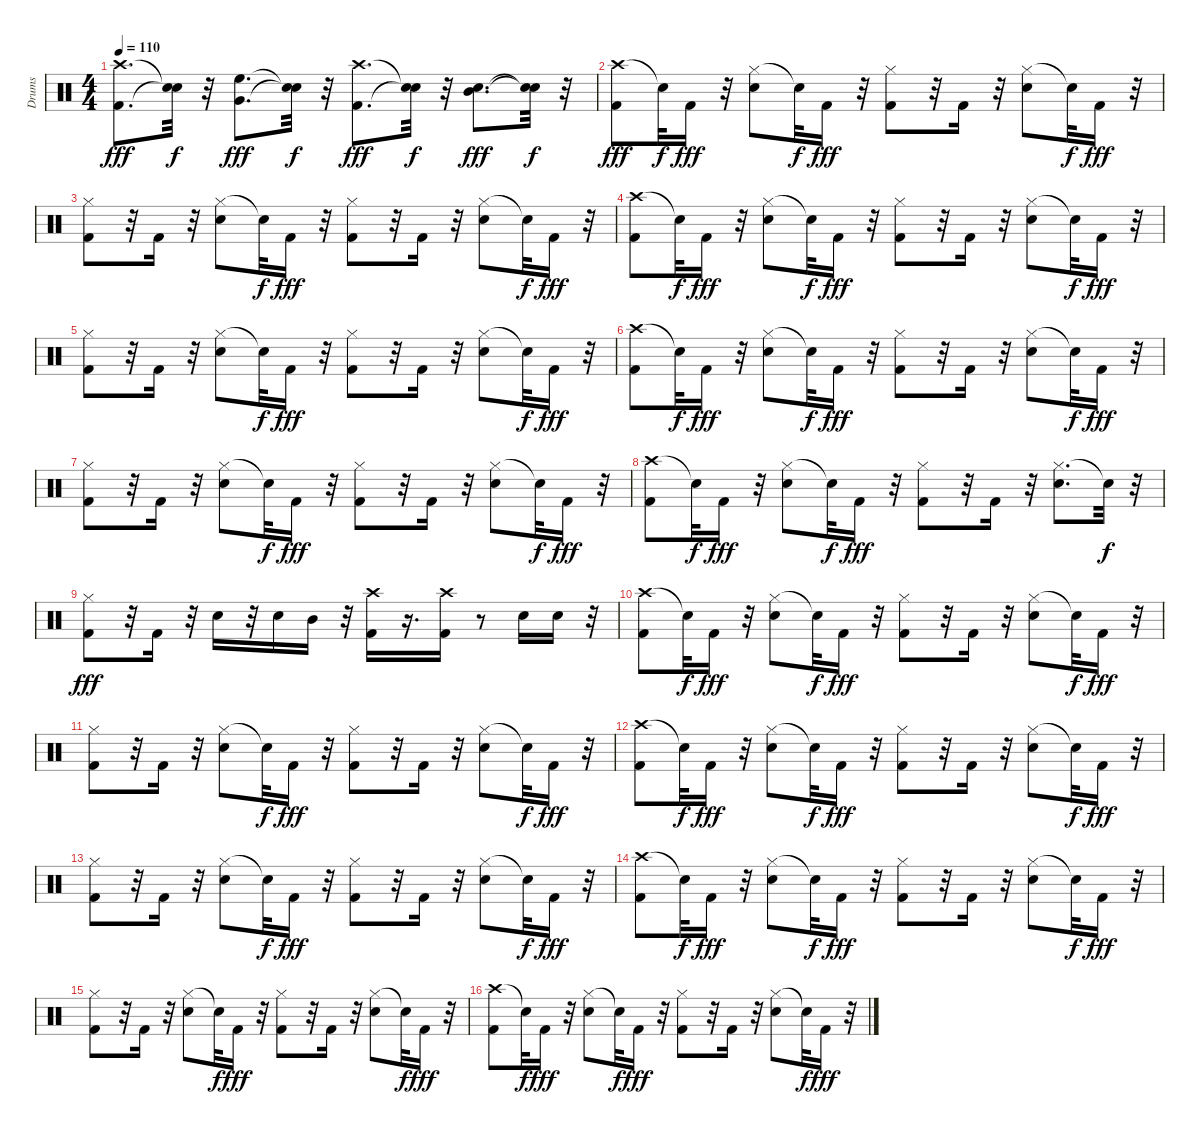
\track ("Drums" "Drums") {instrument percussion}
\staff {score}
\articulation defaults
\ts (4 4)
\tempo 110
\clef neutral
\ks c
("Kick (hit) 2" "Crash high (hit)").8{d dy fff} ("Snare (hit)"{t} "Snare (hit)"{t}).32{dy f} r.32 ("Very Low Tom (hit)" "High Floor Tom (hit)").8{d dy fff} ("Snare (hit)"{t} "Snare (hit)"{t}).32{dy f} r.32 ("Kick (hit) 2" "Crash high (hit)").8{d dy fff} ("Snare (hit)"{t} "Snare (hit)"{t}).32{dy f} r.32 ("Snare (hit) 2" "Mid Tom (hit)").8{d dy fff} ("Snare (hit)"{t} "Snare (hit)"{t}).32{dy f} r.32 |
("Crash high (hit)" "Kick (hit) 2").8{dy fff} "Snare (hit)"{t}.32{dy f} "Kick (hit) 2".16{dy fff} r.32 ("Hi-Hat (closed)" "Snare (hit) 2").8 "Snare (hit)"{t}.32{dy f} "Kick (hit) 2".16{dy fff} r.32 ("Kick (hit) 2" "Hi-Hat (closed)").8 r.32 "Kick (hit) 2".16 r.32 ("Hi-Hat (closed)" "Snare (hit) 2").8 "Snare (hit)"{t}.32{dy f} "Kick (hit) 2".16{dy fff} r.32 |
("Kick (hit) 2" "Hi-Hat (closed)").8 r.32 "Kick (hit) 2".16 r.32 ("Hi-Hat (closed)" "Snare (hit) 2").8 "Snare (hit)"{t}.32{dy f} "Kick (hit) 2".16{dy fff} r.32 ("Kick (hit) 2" "Hi-Hat (closed)").8 r.32 "Kick (hit) 2".16 r.32 ("Hi-Hat (closed)" "Snare (hit) 2").8 "Snare (hit)"{t}.32{dy f} "Kick (hit) 2".16{dy fff} r.32 |
("Crash high (hit)" "Kick (hit) 2").8 "Snare (hit)"{t}.32{dy f} "Kick (hit) 2".16{dy fff} r.32 ("Hi-Hat (closed)" "Snare (hit) 2").8 "Snare (hit)"{t}.32{dy f} "Kick (hit) 2".16{dy fff} r.32 ("Kick (hit) 2" "Hi-Hat (closed)").8 r.32 "Kick (hit) 2".16 r.32 ("Hi-Hat (closed)" "Snare (hit) 2").8 "Snare (hit)"{t}.32{dy f} "Kick (hit) 2".16{dy fff} r.32 |
("Kick (hit) 2" "Hi-Hat (closed)").8 r.32 "Kick (hit) 2".16 r.32 ("Hi-Hat (closed)" "Snare (hit) 2").8 "Snare (hit)"{t}.32{dy f} "Kick (hit) 2".16{dy fff} r.32 ("Kick (hit) 2" "Hi-Hat (closed)").8 r.32 "Kick (hit) 2".16 r.32 ("Hi-Hat (closed)" "Snare (hit) 2").8 "Snare (hit)"{t}.32{dy f} "Kick (hit) 2".16{dy fff} r.32 |
("Crash high (hit)" "Kick (hit) 2").8 "Snare (hit)"{t}.32{dy f} "Kick (hit) 2".16{dy fff} r.32 ("Hi-Hat (closed)" "Snare (hit) 2").8 "Snare (hit)"{t}.32{dy f} "Kick (hit) 2".16{dy fff} r.32 ("Kick (hit) 2" "Hi-Hat (closed)").8 r.32 "Kick (hit) 2".16 r.32 ("Hi-Hat (closed)" "Snare (hit) 2").8 "Snare (hit)"{t}.32{dy f} "Kick (hit) 2".16{dy fff} r.32 |
("Kick (hit) 2" "Hi-Hat (closed)").8 r.32 "Kick (hit) 2".16 r.32 ("Hi-Hat (closed)" "Snare (hit) 2").8 "Snare (hit)"{t}.32{dy f} "Kick (hit) 2".16{dy fff} r.32 ("Kick (hit) 2" "Hi-Hat (closed)").8 r.32 "Kick (hit) 2".16 r.32 ("Hi-Hat (closed)" "Snare (hit) 2").8 "Snare (hit)"{t}.32{dy f} "Kick (hit) 2".16{dy fff} r.32 |
("Crash high (hit)" "Kick (hit) 2").8 "Snare (hit)"{t}.32{dy f} "Kick (hit) 2".16{dy fff} r.32 ("Hi-Hat (closed)" "Snare (hit) 2").8 "Snare (hit)"{t}.32{dy f} "Kick (hit) 2".16{dy fff} r.32 ("Kick (hit) 2" "Hi-Hat (closed)").8 r.32 "Kick (hit) 2".16 r.32 ("Hi-Hat (closed)" "Snare (hit) 2").8{d} "Snare (hit)"{t}.32{dy f} r.32 |
("Hi-Hat (closed)" "Kick (hit) 2").8{dy fff} r.32 "Kick (hit) 2".16 r.32 "Snare (hit) 2".16 r.32 "Snare (hit) 2".16 "Mid Tom (hit)".16 r.32 ("Kick (hit) 2" "Crash high (hit)").16 r.16{d} ("Kick (hit) 2" "Crash high (hit)").16 r.8 "Snare (hit) 2".16 "Snare (hit) 2".16 r.32 |
("Crash high (hit)" "Kick (hit) 2").8 "Snare (hit)"{t}.32{dy f} "Kick (hit) 2".16{dy fff} r.32 ("Hi-Hat (closed)" "Snare (hit) 2").8 "Snare (hit)"{t}.32{dy f} "Kick (hit) 2".16{dy fff} r.32 ("Kick (hit) 2" "Hi-Hat (closed)").8 r.32 "Kick (hit) 2".16 r.32 ("Hi-Hat (closed)" "Snare (hit) 2").8 "Snare (hit)"{t}.32{dy f} "Kick (hit) 2".16{dy fff} r.32 |
("Kick (hit) 2" "Hi-Hat (closed)").8 r.32 "Kick (hit) 2".16 r.32 ("Hi-Hat (closed)" "Snare (hit) 2").8 "Snare (hit)"{t}.32{dy f} "Kick (hit) 2".16{dy fff} r.32 ("Kick (hit) 2" "Hi-Hat (closed)").8 r.32 "Kick (hit) 2".16 r.32 ("Hi-Hat (closed)" "Snare (hit) 2").8 "Snare (hit)"{t}.32{dy f} "Kick (hit) 2".16{dy fff} r.32 |
("Crash high (hit)" "Kick (hit) 2").8 "Snare (hit)"{t}.32{dy f} "Kick (hit) 2".16{dy fff} r.32 ("Hi-Hat (closed)" "Snare (hit) 2").8 "Snare (hit)"{t}.32{dy f} "Kick (hit) 2".16{dy fff} r.32 ("Kick (hit) 2" "Hi-Hat (closed)").8 r.32 "Kick (hit) 2".16 r.32 ("Hi-Hat (closed)" "Snare (hit) 2").8 "Snare (hit)"{t}.32{dy f} "Kick (hit) 2".16{dy fff} r.32 |
("Kick (hit) 2" "Hi-Hat (closed)").8 r.32 "Kick (hit) 2".16 r.32 ("Hi-Hat (closed)" "Snare (hit) 2").8 "Snare (hit)"{t}.32{dy f} "Kick (hit) 2".16{dy fff} r.32 ("Kick (hit) 2" "Hi-Hat (closed)").8 r.32 "Kick (hit) 2".16 r.32 ("Hi-Hat (closed)" "Snare (hit) 2").8 "Snare (hit)"{t}.32{dy f} "Kick (hit) 2".16{dy fff} r.32 |
("Crash high (hit)" "Kick (hit) 2").8 "Snare (hit)"{t}.32{dy f} "Kick (hit) 2".16{dy fff} r.32 ("Hi-Hat (closed)" "Snare (hit) 2").8 "Snare (hit)"{t}.32{dy f} "Kick (hit) 2".16{dy fff} r.32 ("Kick (hit) 2" "Hi-Hat (closed)").8 r.32 "Kick (hit) 2".16 r.32 ("Hi-Hat (closed)" "Snare (hit) 2").8 "Snare (hit)"{t}.32{dy f} "Kick (hit) 2".16{dy fff} r.32 |
("Kick (hit) 2" "Hi-Hat (closed)").8 r.32 "Kick (hit) 2".16 r.32 ("Hi-Hat (closed)" "Snare (hit) 2").8 "Snare (hit)"{t}.32{dy f} "Kick (hit) 2".16{dy fff} r.32 ("Kick (hit) 2" "Hi-Hat (closed)").8 r.32 "Kick (hit) 2".16 r.32 ("Hi-Hat (closed)" "Snare (hit) 2").8 "Snare (hit)"{t}.32{dy f} "Kick (hit) 2".16{dy fff} r.32 |
("Crash high (hit)" "Kick (hit) 2").8 "Snare (hit)"{t}.32{dy f} "Kick (hit) 2".16{dy fff} r.32 ("Hi-Hat (closed)" "Snare (hit) 2").8 "Snare (hit)"{t}.32{dy f} "Kick (hit) 2".16{dy fff} r.32 ("Kick (hit) 2" "Hi-Hat (closed)").8 r.32 "Kick (hit) 2".16 r.32 ("Hi-Hat (closed)" "Snare (hit) 2").8 "Snare (hit)"{t}.32{dy f} "Kick (hit) 2".16{dy fff} r.32
